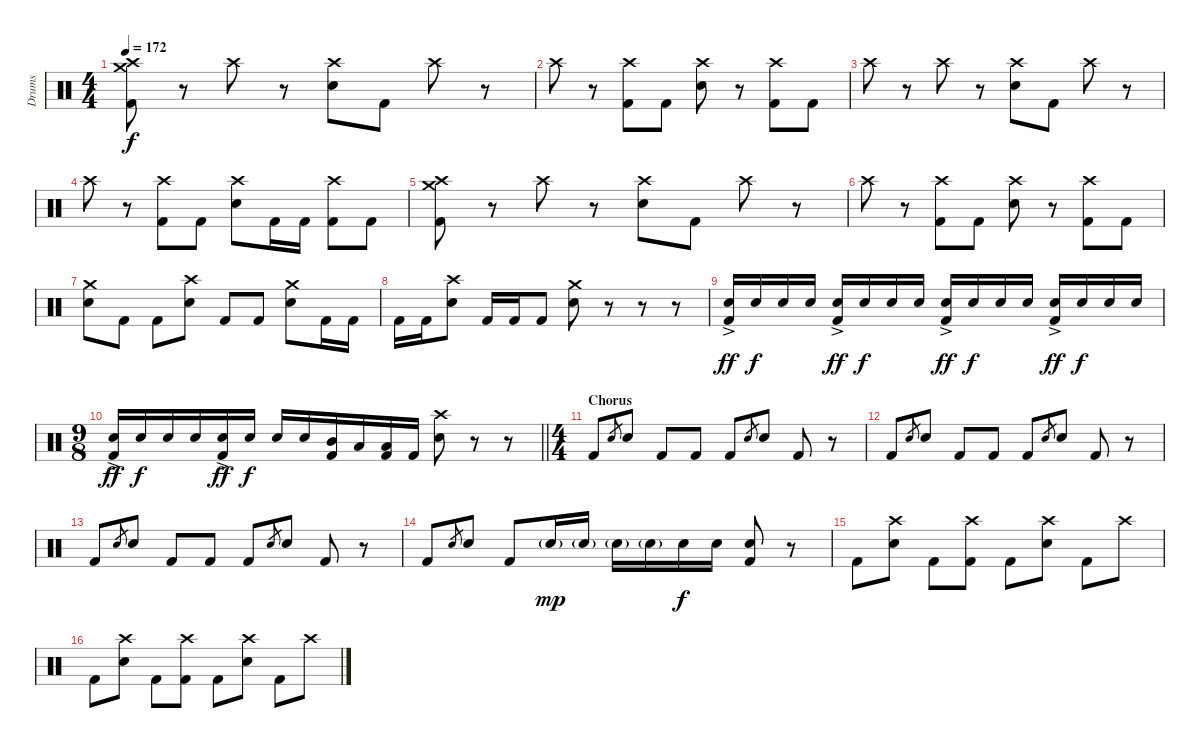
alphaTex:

\track ("Drums" "Drums") {instrument percussion}
\staff {score}
\articulation defaults
\ts (4 4)
\tempo 172
\clef neutral
\ks c
("Crash high (hit)" "Crash medium (hit)" "Kick (hit) 2").8{dy f} r.8 "Crash high (hit)".8 r.8 ("Crash high (hit)" "Electric Snare (hit)").8 "Kick (hit) 2".8 "Crash high (hit)".8 r.8 |
"Crash high (hit)".8 r.8 ("Crash high (hit)" "Kick (hit) 2").8 "Kick (hit) 2".8 ("Crash high (hit)" "Electric Snare (hit)").8 r.8 ("Crash high (hit)" "Kick (hit) 2").8 "Kick (hit) 2".8 |
"Crash high (hit)".8 r.8 "Crash high (hit)".8 r.8 ("Crash high (hit)" "Electric Snare (hit)").8 "Kick (hit) 2".8 "Crash high (hit)".8 r.8 |
"Crash high (hit)".8 r.8 ("Crash high (hit)" "Kick (hit) 2").8 "Kick (hit) 2".8 ("Crash high (hit)" "Electric Snare (hit)").8 "Kick (hit) 2".16 "Kick (hit) 2".16 ("Crash high (hit)" "Kick (hit) 2").8 "Kick (hit) 2".8 |
("Crash high (hit)" "Crash medium (hit)" "Kick (hit) 2").8 r.8 "Crash high (hit)".8 r.8 ("Crash high (hit)" "Electric Snare (hit)").8 "Kick (hit) 2".8 "Crash high (hit)".8 r.8 |
"Crash high (hit)".8 r.8 ("Crash high (hit)" "Kick (hit) 2").8 "Kick (hit) 2".8 ("Crash high (hit)" "Electric Snare (hit)").8 r.8 ("Crash high (hit)" "Kick (hit) 2").8 "Kick (hit) 2".8 |
("Crash medium (hit)" "Electric Snare (hit)").8 "Kick (hit) 2".8 "Kick (hit) 2".8 ("Crash high (hit)" "Electric Snare (hit)").8 "Kick (hit) 2".8 "Kick (hit) 2".8 ("Crash medium (hit)" "Electric Snare (hit)").8 "Kick (hit) 2".16 "Kick (hit) 2".16 |
"Kick (hit) 2".16 "Kick (hit) 2".16 ("Crash high (hit)" "Electric Snare (hit)").8 "Kick (hit) 2".16 "Kick (hit) 2".16 "Kick (hit) 2".8 ("Crash medium (hit)" "Electric Snare (hit)").8 r.8 r.8 r.8 |
("Electric Snare (hit)"{ac} "Kick (hit) 2").16{dy ff} "Electric Snare (hit)".16{dy f} "Electric Snare (hit)".16 "Electric Snare (hit)".16 ("Electric Snare (hit)"{ac} "Kick (hit) 2").16{dy ff} "Electric Snare (hit)".16{dy f} "Electric Snare (hit)".16 "Electric Snare (hit)".16 ("Electric Snare (hit)"{ac} "Kick (hit) 2").16{dy ff} "Electric Snare (hit)".16{dy f} "Electric Snare (hit)".16 "Electric Snare (hit)".16 ("Electric Snare (hit)"{ac} "Kick (hit) 2").16{dy ff} "Electric Snare (hit)".16{dy f} "Electric Snare (hit)".16 "Electric Snare (hit)".16 |
\ts (9 8)
\barLineRight lightlight
("Electric Snare (hit)"{ac} "Kick (hit) 2").16{dy ff} "Electric Snare (hit)".16{dy f} "Electric Snare (hit)".16 "Electric Snare (hit)".16 ("Electric Snare (hit)"{ac} "Kick (hit) 2").16{dy ff} "Electric Snare (hit)".16{dy f} "Electric Snare (hit)".16 "Electric Snare (hit)".16 ("Mid Tom (hit)" "Kick (hit) 2").16 "Low Tom (hit)".16 ("Low Tom (hit)" "Kick (hit) 2").16 "Kick (hit) 2".16 ("Crash high (hit)" "Electric Snare (hit)").8 r.8 r.8 |
\ts (4 4)
\section ("" "Chorus")
"Kick (hit) 2".8 "Electric Snare (hit)".8{gr} "Electric Snare (hit)".8 "Kick (hit) 2".8 "Kick (hit) 2".8 "Kick (hit) 2".8 "Electric Snare (hit)".8{gr} "Electric Snare (hit)".8 "Kick (hit) 2".8 r.8 |
"Kick (hit) 2".8 "Electric Snare (hit)".8{gr} "Electric Snare (hit)".8 "Kick (hit) 2".8 "Kick (hit) 2".8 "Kick (hit) 2".8 "Electric Snare (hit)".8{gr} "Electric Snare (hit)".8 "Kick (hit) 2".8 r.8 |
"Kick (hit) 2".8 "Electric Snare (hit)".8{gr} "Electric Snare (hit)".8 "Kick (hit) 2".8 "Kick (hit) 2".8 "Kick (hit) 2".8 "Electric Snare (hit)".8{gr} "Electric Snare (hit)".8 "Kick (hit) 2".8 r.8 |
"Kick (hit) 2".8 "Electric Snare (hit)".8{gr} "Electric Snare (hit)".8 "Kick (hit) 2".8 "Electric Snare (hit)"{g}.16{dy mp} "Electric Snare (hit)"{g}.16 "Electric Snare (hit)"{g}.16 "Electric Snare (hit)"{g}.16 "Electric Snare (hit)".16{dy f} "Electric Snare (hit)".16 ("Electric Snare (hit)" "Kick (hit) 2").8 r.8 |
"Kick (hit) 2".8 ("Crash high (hit)" "Electric Snare (hit)").8 "Kick (hit) 2".8 ("Crash high (hit)" "Kick (hit) 2").8 "Kick (hit) 2".8 ("Crash high (hit)" "Electric Snare (hit)").8 "Kick (hit) 2".8 "Crash high (hit)".8 |
"Kick (hit) 2".8 ("Crash high (hit)" "Electric Snare (hit)").8 "Kick (hit) 2".8 ("Crash high (hit)" "Kick (hit) 2").8 "Kick (hit) 2".8 ("Crash high (hit)" "Electric Snare (hit)").8 "Kick (hit) 2".8 "Crash high (hit)".8
